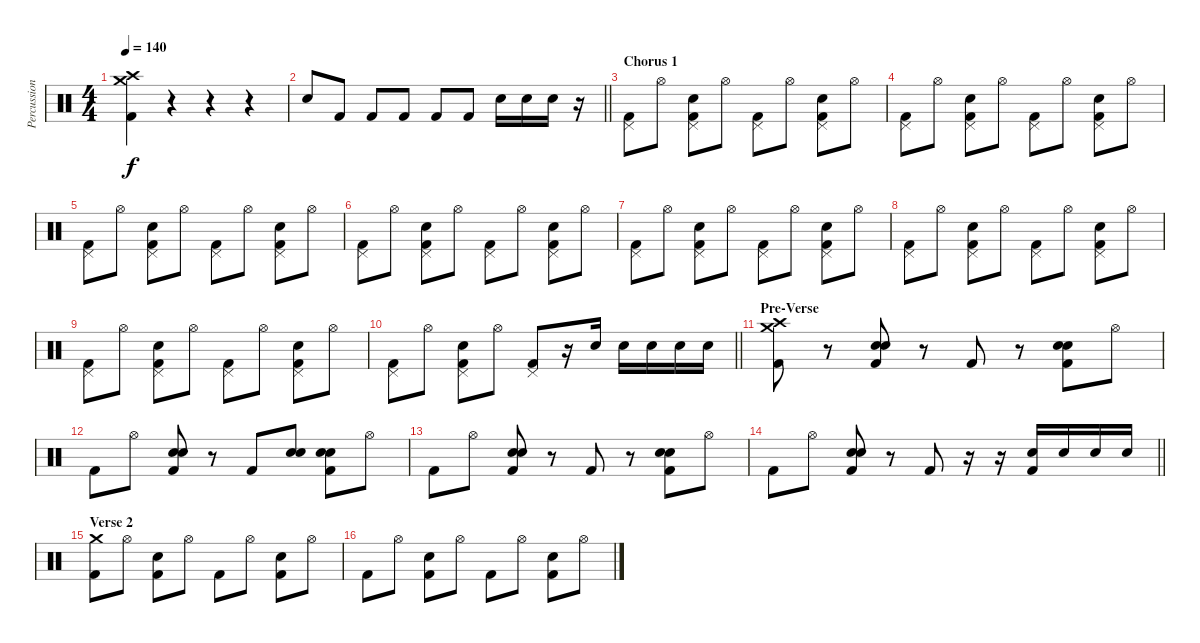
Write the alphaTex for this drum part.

\track ("Percussion" "Percussion") {instrument percussion}
\staff {score}
\articulation defaults
\ts (4 4)
\tempo 140
\clef neutral
\ks c
("Crash medium (hit)" "Crash high (hit)" "Kick (hit) 2").4{dy f} r.4 r.4 r.4 |
\barLineRight lightlight "Electric Snare (hit)".8 "Kick (hit) 2".8 "Kick (hit) 2".8 "Kick (hit) 2".8 "Kick (hit) 2".8 "Kick (hit) 2".8 "Electric Snare (hit)".16 "Electric Snare (hit)".16 "Electric Snare (hit)".16
r.16 |
\section ("" "Chorus 1")
("Pedal Hi-Hat (hit)" "Kick (hit) 2").8 "Hi-Hat (open)".8 ("Pedal Hi-Hat (hit)" "Electric Snare (hit)" "Kick (hit) 2").8 "Hi-Hat (open)".8 ("Pedal Hi-Hat (hit)" "Kick (hit) 2").8 "Hi-Hat (open)".8 ("Pedal Hi-Hat (hit)" "Electric Snare (hit)" "Kick (hit) 2").8 "Hi-Hat (open)".8 |
("Pedal Hi-Hat (hit)" "Kick (hit) 2").8 "Hi-Hat (open)".8 ("Pedal Hi-Hat (hit)" "Electric Snare (hit)" "Kick (hit) 2").8 "Hi-Hat (open)".8 ("Pedal Hi-Hat (hit)" "Kick (hit) 2").8 "Hi-Hat (open)".8 ("Pedal Hi-Hat (hit)" "Electric Snare (hit)" "Kick (hit) 2").8 "Hi-Hat (open)".8 |
("Pedal Hi-Hat (hit)" "Kick (hit) 2").8 "Hi-Hat (open)".8 ("Pedal Hi-Hat (hit)" "Electric Snare (hit)" "Kick (hit) 2").8 "Hi-Hat (open)".8 ("Pedal Hi-Hat (hit)" "Kick (hit) 2").8 "Hi-Hat (open)".8 ("Pedal Hi-Hat (hit)" "Electric Snare (hit)" "Kick (hit) 2").8 "Hi-Hat (open)".8 |
("Pedal Hi-Hat (hit)" "Kick (hit) 2").8 "Hi-Hat (open)".8 ("Pedal Hi-Hat (hit)" "Electric Snare (hit)" "Kick (hit) 2").8 "Hi-Hat (open)".8 ("Pedal Hi-Hat (hit)" "Kick (hit) 2").8 "Hi-Hat (open)".8 ("Pedal Hi-Hat (hit)" "Electric Snare (hit)" "Kick (hit) 2").8 "Hi-Hat (open)".8 |
("Pedal Hi-Hat (hit)" "Kick (hit) 2").8 "Hi-Hat (open)".8 ("Pedal Hi-Hat (hit)" "Electric Snare (hit)" "Kick (hit) 2").8 "Hi-Hat (open)".8 ("Pedal Hi-Hat (hit)" "Kick (hit) 2").8 "Hi-Hat (open)".8 ("Pedal Hi-Hat (hit)" "Electric Snare (hit)" "Kick (hit) 2").8 "Hi-Hat (open)".8 |
("Pedal Hi-Hat (hit)" "Kick (hit) 2").8 "Hi-Hat (open)".8 ("Pedal Hi-Hat (hit)" "Electric Snare (hit)" "Kick (hit) 2").8 "Hi-Hat (open)".8 ("Pedal Hi-Hat (hit)" "Kick (hit) 2").8 "Hi-Hat (open)".8 ("Pedal Hi-Hat (hit)" "Electric Snare (hit)" "Kick (hit) 2").8 "Hi-Hat (open)".8 |
("Pedal Hi-Hat (hit)" "Kick (hit) 2").8 "Hi-Hat (open)".8 ("Pedal Hi-Hat (hit)" "Electric Snare (hit)" "Kick (hit) 2").8 "Hi-Hat (open)".8 ("Pedal Hi-Hat (hit)" "Kick (hit) 2").8 "Hi-Hat (open)".8 ("Pedal Hi-Hat (hit)" "Electric Snare (hit)" "Kick (hit) 2").8 "Hi-Hat (open)".8 |
\barLineRight lightlight
("Pedal Hi-Hat (hit)" "Kick (hit) 2").8 "Hi-Hat (open)".8 ("Pedal Hi-Hat (hit)" "Electric Snare (hit)" "Kick (hit) 2").8 "Hi-Hat (open)".8 ("Pedal Hi-Hat (hit)" "Kick (hit) 2").8 r.16 "Electric Snare (hit)".16 "Electric Snare (hit)".16 "Electric Snare (hit)".16 "Electric Snare (hit)".16 "Electric Snare (hit)".16 |
\section ("" "Pre-Verse")
("Crash high (hit)" "Crash medium (hit)" "Kick (hit) 2").8 r.8 ("Electric Snare (hit)" "Electric Snare (hit)" "Kick (hit) 2").8 r.8 "Kick (hit) 2".8 r.8 ("Electric Snare (hit)" "Electric Snare (hit)" "Kick (hit) 2").8 "Hi-Hat (open)".8 |
"Kick (hit) 2".8 "Hi-Hat (open)".8 ("Electric Snare (hit)" "Electric Snare (hit)" "Kick (hit) 2").8 r.8 "Kick (hit) 2".8 ("Electric Snare (hit)" "Electric Snare (hit)").8 ("Electric Snare (hit)" "Electric Snare (hit)" "Kick (hit) 2").8 "Hi-Hat (open)".8 |
"Kick (hit) 2".8 "Hi-Hat (open)".8 ("Electric Snare (hit)" "Electric Snare (hit)" "Kick (hit) 2").8 r.8 "Kick (hit) 2".8 r.8 ("Electric Snare (hit)" "Electric Snare (hit)" "Kick (hit) 2").8 "Hi-Hat (open)".8 |
\barLineRight lightlight "Kick (hit) 2".8 "Hi-Hat (open)".8
("Electric Snare (hit)" "Electric Snare (hit)" "Kick (hit) 2").8 r.8 "Kick (hit) 2".8 r.16 r.16 ("Electric Snare (hit)" "Kick (hit) 2").16 "Electric Snare (hit)".16 "Electric Snare (hit)".16 "Electric Snare (hit)".16 |
\section ("" "Verse 2")
("Crash medium (hit)" "Kick (hit) 2").8 "Hi-Hat (open)".8 ("Electric Snare (hit)" "Kick (hit) 2").8 "Hi-Hat (open)".8 "Kick (hit) 2".8 "Hi-Hat (open)".8 ("Electric Snare (hit)" "Kick (hit) 2").8 "Hi-Hat (open)".8 |
"Kick (hit) 2".8 "Hi-Hat (open)".8 ("Electric Snare (hit)" "Kick (hit) 2").8 "Hi-Hat (open)".8 "Kick (hit) 2".8 "Hi-Hat (open)".8 ("Electric Snare (hit)" "Kick (hit) 2").8 "Hi-Hat (open)".8
